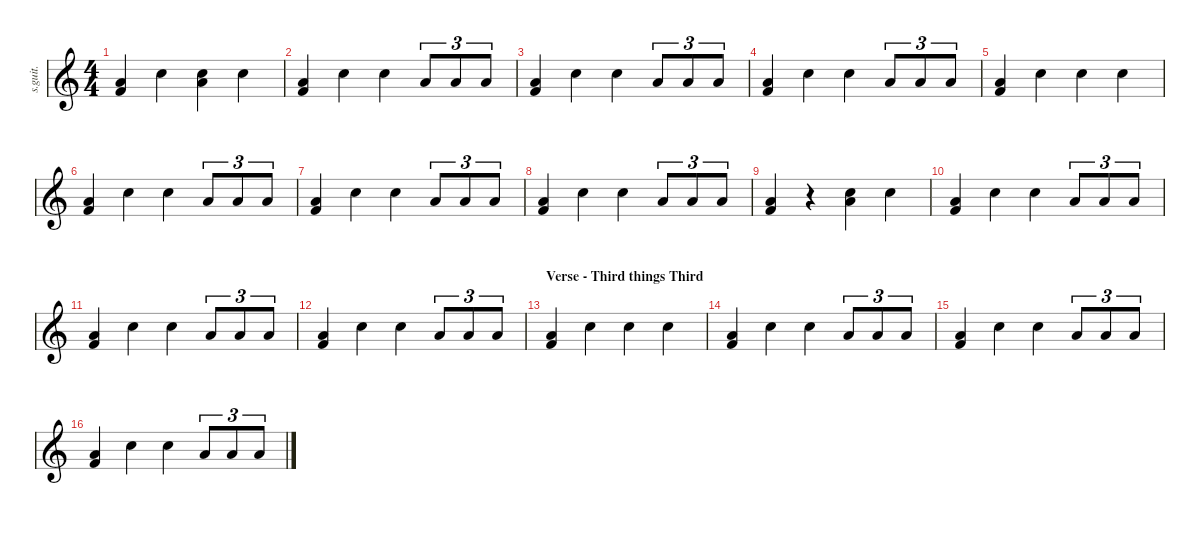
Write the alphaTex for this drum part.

\defaultSystemsLayout 4
\hideDynamics
\bracketExtendMode nobrackets
\track ("Daniel Platzman - Drums" "s.guit.") {instrument percussion}
\staff {score}
\articulation defaults
\ts (4 4)
\tempo (125 hide)
\clef g2
\ks c
("Low Floor Tom (hit)" "Kick (hit) 2").4{lyrics (0 "") lyrics (1 "") lyrics (2 "") lyrics (3 "") lyrics (4 "") dy f} "Hand Clap (hit)".4{lyrics (0 "") lyrics (1 "") lyrics (2 "") lyrics (3 "") lyrics (4 "")} ("Low Floor Tom (hit)" "Electric Snare (hit)").4{lyrics (0 "") lyrics (1 "") lyrics (2 "") lyrics (3 "") lyrics (4 "")} "Hand Clap (hit)".4{lyrics (0 "") lyrics (1 "") lyrics (2 "") lyrics (3 "") lyrics (4 "")} |
("Low Floor Tom (hit)" "Kick (hit) 2").4{lyrics (0 "") lyrics (1 "") lyrics (2 "") lyrics (3 "") lyrics (4 "")} "Hand Clap (hit)".4{lyrics (0 "") lyrics (1 "") lyrics (2 "") lyrics (3 "") lyrics (4 "")} "Electric Snare (hit)".4{lyrics (0 "") lyrics (1 "") lyrics (2 "") lyrics (3 "") lyrics (4 "")} "Low Floor Tom (hit)".8{tu (3 2) lyrics (0 "") lyrics (1 "") lyrics (2 "") lyrics (3 "") lyrics (4 "")} "Low Floor Tom (hit)".8{tu (3 2) lyrics (0 "") lyrics (1 "") lyrics (2 "") lyrics (3 "") lyrics (4 "")} "Low Floor Tom (hit)".8{tu (3 2) lyrics (0 "") lyrics (1 "") lyrics (2 "") lyrics (3 "") lyrics (4 "")} |
("Low Floor Tom (hit)" "Kick (hit) 2").4{lyrics (0 "") lyrics (1 "") lyrics (2 "") lyrics (3 "") lyrics (4 "")} "Hand Clap (hit)".4{lyrics (0 "") lyrics (1 "") lyrics (2 "") lyrics (3 "") lyrics (4 "")} "Electric Snare (hit)".4{lyrics (0 "") lyrics (1 "") lyrics (2 "") lyrics (3 "") lyrics (4 "")} "Low Floor Tom (hit)".8{tu (3 2) lyrics (0 "") lyrics (1 "") lyrics (2 "") lyrics (3 "") lyrics (4 "")} "Low Floor Tom (hit)".8{tu (3 2) lyrics (0 "") lyrics (1 "") lyrics (2 "") lyrics (3 "") lyrics (4 "")} "Low Floor Tom (hit)".8{tu (3 2) lyrics (0 "") lyrics (1 "") lyrics (2 "") lyrics (3 "") lyrics (4 "")} |
("Low Floor Tom (hit)" "Kick (hit) 2").4{lyrics (0 "") lyrics (1 "") lyrics (2 "") lyrics (3 "") lyrics (4 "")} "Hand Clap (hit)".4{lyrics (0 "") lyrics (1 "") lyrics (2 "") lyrics (3 "") lyrics (4 "")} "Electric Snare (hit)".4{lyrics (0 "") lyrics (1 "") lyrics (2 "") lyrics (3 "") lyrics (4 "")} "Low Floor Tom (hit)".8{tu (3 2) lyrics (0 "") lyrics (1 "") lyrics (2 "") lyrics (3 "") lyrics (4 "")} "Low Floor Tom (hit)".8{tu (3 2) lyrics (0 "") lyrics (1 "") lyrics (2 "") lyrics (3 "") lyrics (4 "")} "Low Floor Tom (hit)".8{tu (3 2) lyrics (0 "") lyrics (1 "") lyrics (2 "") lyrics (3 "") lyrics (4 "")} |
("Low Floor Tom (hit)" "Kick (hit) 2").4{lyrics (0 "") lyrics (1 "") lyrics (2 "") lyrics (3 "") lyrics (4 "")} "Hand Clap (hit)".4{lyrics (0 "") lyrics (1 "") lyrics (2 "") lyrics (3 "") lyrics (4 "")} "Electric Snare (hit)".4{lyrics (0 "") lyrics (1 "") lyrics (2 "") lyrics (3 "") lyrics (4 "")} "Hand Clap (hit)".4{lyrics (0 "") lyrics (1 "") lyrics (2 "") lyrics (3 "") lyrics (4 "")} |
("Low Floor Tom (hit)" "Kick (hit) 2").4{lyrics (0 "") lyrics (1 "") lyrics (2 "") lyrics (3 "") lyrics (4 "")} "Hand Clap (hit)".4{lyrics (0 "") lyrics (1 "") lyrics (2 "") lyrics (3 "") lyrics (4 "")} "Electric Snare (hit)".4{lyrics (0 "") lyrics (1 "") lyrics (2 "") lyrics (3 "") lyrics (4 "")} "Low Floor Tom (hit)".8{tu (3 2) lyrics (0 "") lyrics (1 "") lyrics (2 "") lyrics (3 "") lyrics (4 "")} "Low Floor Tom (hit)".8{tu (3 2) lyrics (0 "") lyrics (1 "") lyrics (2 "") lyrics (3 "") lyrics (4 "")} "Low Floor Tom (hit)".8{tu (3 2) lyrics (0 "") lyrics (1 "") lyrics (2 "") lyrics (3 "") lyrics (4 "")} |
("Low Floor Tom (hit)" "Kick (hit) 2").4{lyrics (0 "") lyrics (1 "") lyrics (2 "") lyrics (3 "") lyrics (4 "")} "Hand Clap (hit)".4{lyrics (0 "") lyrics (1 "") lyrics (2 "") lyrics (3 "") lyrics (4 "")} "Electric Snare (hit)".4{lyrics (0 "") lyrics (1 "") lyrics (2 "") lyrics (3 "") lyrics (4 "")} "Low Floor Tom (hit)".8{tu (3 2) lyrics (0 "") lyrics (1 "") lyrics (2 "") lyrics (3 "") lyrics (4 "")} "Low Floor Tom (hit)".8{tu (3 2) lyrics (0 "") lyrics (1 "") lyrics (2 "") lyrics (3 "") lyrics (4 "")} "Low Floor Tom (hit)".8{tu (3 2) lyrics (0 "") lyrics (1 "") lyrics (2 "") lyrics (3 "") lyrics (4 "")} |
("Low Floor Tom (hit)" "Kick (hit) 2").4{lyrics (0 "") lyrics (1 "") lyrics (2 "") lyrics (3 "") lyrics (4 "")} "Hand Clap (hit)".4{lyrics (0 "") lyrics (1 "") lyrics (2 "") lyrics (3 "") lyrics (4 "")} "Electric Snare (hit)".4{lyrics (0 "") lyrics (1 "") lyrics (2 "") lyrics (3 "") lyrics (4 "")} "Low Floor Tom (hit)".8{tu (3 2) lyrics (0 "") lyrics (1 "") lyrics (2 "") lyrics (3 "") lyrics (4 "")} "Low Floor Tom (hit)".8{tu (3 2) lyrics (0 "") lyrics (1 "") lyrics (2 "") lyrics (3 "") lyrics (4 "")} "Low Floor Tom (hit)".8{tu (3 2) lyrics (0 "") lyrics (1 "") lyrics (2 "") lyrics (3 "") lyrics (4 "")} |
("Low Floor Tom (hit)" "Kick (hit) 2").4{lyrics (0 "") lyrics (1 "") lyrics (2 "") lyrics (3 "") lyrics (4 "")} r.4 ("Low Floor Tom (hit)" "Electric Snare (hit)").4{lyrics (0 "") lyrics (1 "") lyrics (2 "") lyrics (3 "") lyrics (4 "")} "Hand Clap (hit)".4{lyrics (0 "") lyrics (1 "") lyrics (2 "") lyrics (3 "") lyrics (4 "")} |
("Low Floor Tom (hit)" "Kick (hit) 2").4{lyrics (0 "") lyrics (1 "") lyrics (2 "") lyrics (3 "") lyrics (4 "")} "Hand Clap (hit)".4{lyrics (0 "") lyrics (1 "") lyrics (2 "") lyrics (3 "") lyrics (4 "")} "Electric Snare (hit)".4{lyrics (0 "") lyrics (1 "") lyrics (2 "") lyrics (3 "") lyrics (4 "")} "Low Floor Tom (hit)".8{tu (3 2) lyrics (0 "") lyrics (1 "") lyrics (2 "") lyrics (3 "") lyrics (4 "")} "Low Floor Tom (hit)".8{tu (3 2) lyrics (0 "") lyrics (1 "") lyrics (2 "") lyrics (3 "") lyrics (4 "")} "Low Floor Tom (hit)".8{tu (3 2) lyrics (0 "") lyrics (1 "") lyrics (2 "") lyrics (3 "") lyrics (4 "")} |
("Low Floor Tom (hit)" "Kick (hit) 2").4{lyrics (0 "") lyrics (1 "") lyrics (2 "") lyrics (3 "") lyrics (4 "")} "Hand Clap (hit)".4{lyrics (0 "") lyrics (1 "") lyrics (2 "") lyrics (3 "") lyrics (4 "")} "Electric Snare (hit)".4{lyrics (0 "") lyrics (1 "") lyrics (2 "") lyrics (3 "") lyrics (4 "")} "Low Floor Tom (hit)".8{tu (3 2) lyrics (0 "") lyrics (1 "") lyrics (2 "") lyrics (3 "") lyrics (4 "")} "Low Floor Tom (hit)".8{tu (3 2) lyrics (0 "") lyrics (1 "") lyrics (2 "") lyrics (3 "") lyrics (4 "")} "Low Floor Tom (hit)".8{tu (3 2) lyrics (0 "") lyrics (1 "") lyrics (2 "") lyrics (3 "") lyrics (4 "")} |
("Low Floor Tom (hit)" "Kick (hit) 2").4{lyrics (0 "") lyrics (1 "") lyrics (2 "") lyrics (3 "") lyrics (4 "")} "Hand Clap (hit)".4{lyrics (0 "") lyrics (1 "") lyrics (2 "") lyrics (3 "") lyrics (4 "")} "Electric Snare (hit)".4{lyrics (0 "") lyrics (1 "") lyrics (2 "") lyrics (3 "") lyrics (4 "")} "Low Floor Tom (hit)".8{tu (3 2) lyrics (0 "") lyrics (1 "") lyrics (2 "") lyrics (3 "") lyrics (4 "")} "Low Floor Tom (hit)".8{tu (3 2) lyrics (0 "") lyrics (1 "") lyrics (2 "") lyrics (3 "") lyrics (4 "")} "Low Floor Tom (hit)".8{tu (3 2) lyrics (0 "") lyrics (1 "") lyrics (2 "") lyrics (3 "") lyrics (4 "")} |
\section ("" "Verse - Third things Third")
("Low Floor Tom (hit)" "Kick (hit) 2").4{lyrics (0 "") lyrics (1 "") lyrics (2 "") lyrics (3 "") lyrics (4 "")} "Hand Clap (hit)".4{lyrics (0 "") lyrics (1 "") lyrics (2 "") lyrics (3 "") lyrics (4 "")} "Electric Snare (hit)".4{lyrics (0 "") lyrics (1 "") lyrics (2 "") lyrics (3 "") lyrics (4 "")} "Hand Clap (hit)".4{lyrics (0 "") lyrics (1 "") lyrics (2 "") lyrics (3 "") lyrics (4 "")} |
("Low Floor Tom (hit)" "Kick (hit) 2").4{lyrics (0 "") lyrics (1 "") lyrics (2 "") lyrics (3 "") lyrics (4 "")} "Hand Clap (hit)".4{lyrics (0 "") lyrics (1 "") lyrics (2 "") lyrics (3 "") lyrics (4 "")} "Electric Snare (hit)".4{lyrics (0 "") lyrics (1 "") lyrics (2 "") lyrics (3 "") lyrics (4 "")} "Low Floor Tom (hit)".8{tu (3 2) lyrics (0 "") lyrics (1 "") lyrics (2 "") lyrics (3 "") lyrics (4 "")} "Low Floor Tom (hit)".8{tu (3 2) lyrics (0 "") lyrics (1 "") lyrics (2 "") lyrics (3 "") lyrics (4 "")} "Low Floor Tom (hit)".8{tu (3 2) lyrics (0 "") lyrics (1 "") lyrics (2 "") lyrics (3 "") lyrics (4 "")} |
("Low Floor Tom (hit)" "Kick (hit) 2").4{lyrics (0 "") lyrics (1 "") lyrics (2 "") lyrics (3 "") lyrics (4 "")} "Hand Clap (hit)".4{lyrics (0 "") lyrics (1 "") lyrics (2 "") lyrics (3 "") lyrics (4 "")} "Electric Snare (hit)".4{lyrics (0 "") lyrics (1 "") lyrics (2 "") lyrics (3 "") lyrics (4 "")} "Low Floor Tom (hit)".8{tu (3 2) lyrics (0 "") lyrics (1 "") lyrics (2 "") lyrics (3 "") lyrics (4 "")} "Low Floor Tom (hit)".8{tu (3 2) lyrics (0 "") lyrics (1 "") lyrics (2 "") lyrics (3 "") lyrics (4 "")} "Low Floor Tom (hit)".8{tu (3 2) lyrics (0 "") lyrics (1 "") lyrics (2 "") lyrics (3 "") lyrics (4 "")} |
("Low Floor Tom (hit)" "Kick (hit) 2").4{lyrics (0 "") lyrics (1 "") lyrics (2 "") lyrics (3 "") lyrics (4 "")} "Hand Clap (hit)".4{lyrics (0 "") lyrics (1 "") lyrics (2 "") lyrics (3 "") lyrics (4 "")} "Electric Snare (hit)".4{lyrics (0 "") lyrics (1 "") lyrics (2 "") lyrics (3 "") lyrics (4 "")} "Low Floor Tom (hit)".8{tu (3 2) lyrics (0 "") lyrics (1 "") lyrics (2 "") lyrics (3 "") lyrics (4 "")} "Low Floor Tom (hit)".8{tu (3 2) lyrics (0 "") lyrics (1 "") lyrics (2 "") lyrics (3 "") lyrics (4 "")} "Low Floor Tom (hit)".8{tu (3 2) lyrics (0 "") lyrics (1 "") lyrics (2 "") lyrics (3 "") lyrics (4 "")}
